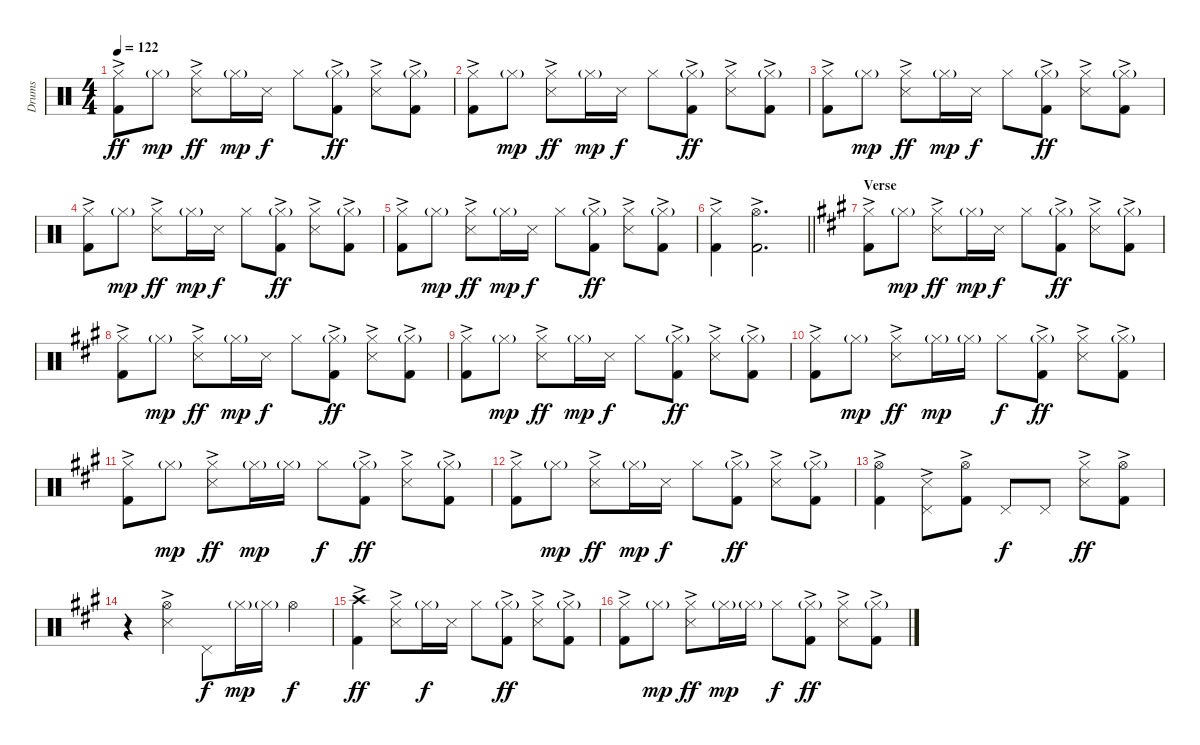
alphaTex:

\track ("Drums" "Drums") {instrument percussion}
\staff {score}
\articulation defaults
\ts (4 4)
\tempo 122
\clef neutral
\ks c
("Hi-Hat (closed)" "Kick (hit) 2"{ac}).8{dy ff} "Hi-Hat (closed)"{g}.8{dy mp} ("Hi-Hat (closed)" "Snare (side stick) 3"{ac}).8{dy ff} "Hi-Hat (closed)"{g}.16{dy mp} "Snare (side stick) 3".16{dy f} "Hi-Hat (closed)".8 ("Hi-Hat (closed)"{g} "Kick (hit) 2"{ac}).8{dy ff} ("Hi-Hat (closed)" "Snare (side stick) 3"{ac}).8 ("Hi-Hat (closed)"{g} "Kick (hit) 2"{ac}).8 |
("Hi-Hat (closed)" "Kick (hit) 2"{ac}).8 "Hi-Hat (closed)"{g}.8{dy mp} ("Hi-Hat (closed)" "Snare (side stick) 3"{ac}).8{dy ff} "Hi-Hat (closed)"{g}.16{dy mp} "Snare (side stick) 3".16{dy f} "Hi-Hat (closed)".8 ("Hi-Hat (closed)"{g} "Kick (hit) 2"{ac}).8{dy ff} ("Hi-Hat (closed)" "Snare (side stick) 3"{ac}).8 ("Hi-Hat (closed)"{g} "Kick (hit) 2"{ac}).8 |
("Hi-Hat (closed)" "Kick (hit) 2"{ac}).8 "Hi-Hat (closed)"{g}.8{dy mp} ("Hi-Hat (closed)" "Snare (side stick) 3"{ac}).8{dy ff} "Hi-Hat (closed)"{g}.16{dy mp} "Snare (side stick) 3".16{dy f} "Hi-Hat (closed)".8 ("Hi-Hat (closed)"{g} "Kick (hit) 2"{ac}).8{dy ff} ("Hi-Hat (closed)" "Snare (side stick) 3"{ac}).8 ("Hi-Hat (closed)"{g} "Kick (hit) 2"{ac}).8 |
("Hi-Hat (closed)" "Kick (hit) 2"{ac}).8 "Hi-Hat (closed)"{g}.8{dy mp} ("Hi-Hat (closed)" "Snare (side stick) 3"{ac}).8{dy ff} "Hi-Hat (closed)"{g}.16{dy mp} "Snare (side stick) 3".16{dy f} "Hi-Hat (closed)".8 ("Hi-Hat (closed)"{g} "Kick (hit) 2"{ac}).8{dy ff} ("Hi-Hat (closed)" "Snare (side stick) 3"{ac}).8 ("Hi-Hat (closed)"{g} "Kick (hit) 2"{ac}).8 |
("Hi-Hat (closed)" "Kick (hit) 2"{ac}).8 "Hi-Hat (closed)"{g}.8{dy mp} ("Hi-Hat (closed)" "Snare (side stick) 3"{ac}).8{dy ff} "Hi-Hat (closed)"{g}.16{dy mp} "Snare (side stick) 3".16{dy f} "Hi-Hat (closed)".8 ("Hi-Hat (closed)"{g} "Kick (hit) 2"{ac}).8{dy ff} ("Hi-Hat (closed)" "Snare (side stick) 3"{ac}).8 ("Hi-Hat (closed)"{g} "Kick (hit) 2"{ac}).8 |
\barLineRight lightlight
("Hi-Hat (closed)" "Kick (hit) 2"{ac}).4 ("Hi-Hat (open)" "Kick (hit) 2"{ac}).2{d} |
\section ("" "Verse")
\ks a
("Hi-Hat (closed)" "Kick (hit) 2"{ac}).8 "Hi-Hat (closed)"{g}.8{dy mp} ("Hi-Hat (closed)" "Snare (side stick) 3"{ac}).8{dy ff} "Hi-Hat (closed)"{g}.16{dy mp} "Snare (side stick) 3".16{dy f} "Hi-Hat (closed)".8 ("Hi-Hat (closed)"{g} "Kick (hit) 2"{ac}).8{dy ff} ("Hi-Hat (closed)" "Snare (side stick) 3"{ac}).8 ("Hi-Hat (closed)"{g} "Kick (hit) 2"{ac}).8 |
("Hi-Hat (closed)" "Kick (hit) 2"{ac}).8 "Hi-Hat (closed)"{g}.8{dy mp} ("Hi-Hat (closed)" "Snare (side stick) 3"{ac}).8{dy ff} "Hi-Hat (closed)"{g}.16{dy mp} "Snare (side stick) 3".16{dy f} "Hi-Hat (closed)".8 ("Hi-Hat (closed)"{g} "Kick (hit) 2"{ac}).8{dy ff} ("Hi-Hat (closed)" "Snare (side stick) 3"{ac}).8 ("Hi-Hat (closed)"{g} "Kick (hit) 2"{ac}).8 |
("Hi-Hat (closed)" "Kick (hit) 2"{ac}).8 "Hi-Hat (closed)"{g}.8{dy mp} ("Hi-Hat (closed)" "Snare (side stick) 3"{ac}).8{dy ff} "Hi-Hat (closed)"{g}.16{dy mp} "Snare (side stick) 3".16{dy f} "Hi-Hat (closed)".8 ("Hi-Hat (closed)"{g} "Kick (hit) 2"{ac}).8{dy ff} ("Hi-Hat (closed)" "Snare (side stick) 3"{ac}).8 ("Hi-Hat (closed)"{g} "Kick (hit) 2"{ac}).8 |
("Hi-Hat (closed)" "Kick (hit) 2"{ac}).8 "Hi-Hat (closed)"{g}.8{dy mp} ("Hi-Hat (closed)" "Snare (side stick) 3"{ac}).8{dy ff} "Hi-Hat (closed)"{g}.16{dy mp} "Hi-Hat (closed)"{g}.16 "Hi-Hat (closed)".8{dy f} ("Hi-Hat (closed)"{g} "Kick (hit) 2"{ac}).8{dy ff} ("Hi-Hat (closed)" "Snare (side stick) 3"{ac}).8 ("Hi-Hat (closed)"{g} "Kick (hit) 2"{ac}).8 |
("Hi-Hat (closed)" "Kick (hit) 2"{ac}).8 "Hi-Hat (closed)"{g}.8{dy mp} ("Hi-Hat (closed)" "Snare (side stick) 3"{ac}).8{dy ff} "Hi-Hat (closed)"{g}.16{dy mp} "Hi-Hat (closed)"{g}.16 "Hi-Hat (closed)".8{dy f} ("Hi-Hat (closed)"{g} "Kick (hit) 2"{ac}).8{dy ff} ("Hi-Hat (closed)" "Snare (side stick) 3"{ac}).8 ("Hi-Hat (closed)"{g} "Kick (hit) 2"{ac}).8 |
("Hi-Hat (closed)" "Kick (hit) 2"{ac}).8 "Hi-Hat (closed)"{g}.8{dy mp} ("Hi-Hat (closed)" "Snare (side stick) 3"{ac}).8{dy ff} "Hi-Hat (closed)"{g}.16{dy mp} "Snare (side stick) 3".16{dy f} "Hi-Hat (closed)".8 ("Hi-Hat (closed)"{g} "Kick (hit) 2"{ac}).8{dy ff} ("Hi-Hat (closed)" "Snare (side stick) 3"{ac}).8 ("Hi-Hat (closed)"{g} "Kick (hit) 2"{ac}).8 |
("Hi-Hat (open)" "Kick (hit) 2"{ac}).4 ("Pedal Hi-Hat (hit)" "Snare (side stick) 3"{ac}).8 ("Hi-Hat (open)" "Kick (hit) 2"{ac}).8 "Pedal Hi-Hat (hit)".8{dy f} "Pedal Hi-Hat (hit)".8 ("Hi-Hat (closed)" "Snare (side stick) 3"{ac}).8{dy ff} ("Hi-Hat (open)" "Kick (hit) 2"{ac}).8 |
r.4 ("Hi-Hat (open)" "Snare (side stick) 3"{ac}).4 "Pedal Hi-Hat (hit)".8{dy f} "Hi-Hat (closed)"{g}.16{dy mp} "Hi-Hat (closed)"{g}.16 "Hi-Hat (open)".4{dy f} |
("Crash high (hit)" "Kick (hit) 2"{ac}).4{dy ff} ("Hi-Hat (closed)" "Snare (side stick) 3"{ac}).8 "Hi-Hat (closed)"{g}.16{dy f} "Snare (side stick) 3".16 "Hi-Hat (closed)".8 ("Hi-Hat (closed)"{g} "Kick (hit) 2"{ac}).8{dy ff} ("Hi-Hat (closed)" "Snare (side stick) 3"{ac}).8 ("Hi-Hat (closed)"{g} "Kick (hit) 2"{ac}).8 |
("Hi-Hat (closed)" "Kick (hit) 2"{ac}).8 "Hi-Hat (closed)"{g}.8{dy mp} ("Hi-Hat (closed)" "Snare (side stick) 3"{ac}).8{dy ff} "Hi-Hat (closed)"{g}.16{dy mp} "Hi-Hat (closed)"{g}.16 "Hi-Hat (closed)".8{dy f} ("Hi-Hat (closed)"{g} "Kick (hit) 2"{ac}).8{dy ff} ("Hi-Hat (closed)" "Snare (side stick) 3"{ac}).8 ("Hi-Hat (closed)"{g} "Kick (hit) 2"{ac}).8
